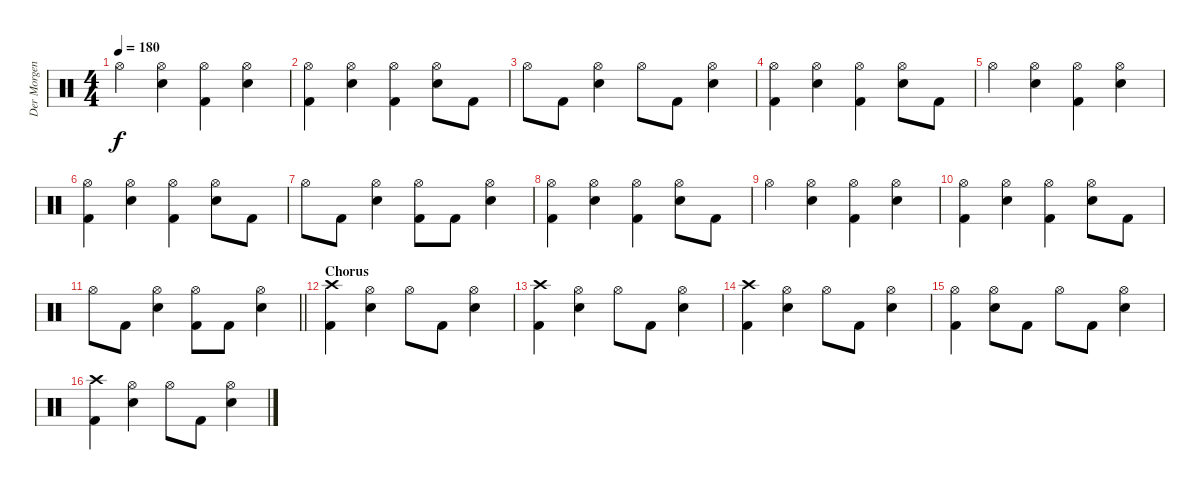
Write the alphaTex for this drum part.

\track ("Der Morgenstern" "Der Morgen") {instrument percussion}
\staff {score}
\articulation defaults
\ts (4 4)
\tempo 180
\clef neutral
\ks c "Hi-Hat (open)".4{dy f}
("Hi-Hat (open)" "Electric Snare (hit)").4 ("Hi-Hat (open)" "Kick (hit) 2").4 ("Hi-Hat (open)" "Electric Snare (hit)").4 |
("Hi-Hat (open)" "Kick (hit) 2").4 ("Hi-Hat (open)" "Electric Snare (hit)").4 ("Hi-Hat (open)" "Kick (hit) 2").4 ("Hi-Hat (open)" "Electric Snare (hit)").8 "Kick (hit) 2".8 |
"Hi-Hat (open)".8 "Kick (hit) 2".8 ("Hi-Hat (open)" "Electric Snare (hit)").4 "Hi-Hat (open)".8 "Kick (hit) 2".8 ("Hi-Hat (open)" "Electric Snare (hit)").4 |
("Hi-Hat (open)" "Kick (hit) 2").4 ("Hi-Hat (open)" "Electric Snare (hit)").4 ("Hi-Hat (open)" "Kick (hit) 2").4 ("Hi-Hat (open)" "Electric Snare (hit)").8 "Kick (hit) 2".8 |
"Hi-Hat (open)".4 ("Hi-Hat (open)" "Electric Snare (hit)").4 ("Hi-Hat (open)" "Kick (hit) 2").4 ("Hi-Hat (open)" "Electric Snare (hit)").4 |
("Hi-Hat (open)" "Kick (hit) 2").4 ("Hi-Hat (open)" "Electric Snare (hit)").4 ("Hi-Hat (open)" "Kick (hit) 2").4 ("Hi-Hat (open)" "Electric Snare (hit)").8 "Kick (hit) 2".8 |
"Hi-Hat (open)".8 "Kick (hit) 2".8 ("Hi-Hat (open)" "Electric Snare (hit)").4 ("Hi-Hat (open)" "Kick (hit) 2").8 "Kick (hit) 2".8 ("Hi-Hat (open)" "Electric Snare (hit)").4 |
("Hi-Hat (open)" "Kick (hit) 2").4 ("Hi-Hat (open)" "Electric Snare (hit)").4 ("Hi-Hat (open)" "Kick (hit) 2").4 ("Hi-Hat (open)" "Electric Snare (hit)").8 "Kick (hit) 2".8 |
"Hi-Hat (open)".4 ("Hi-Hat (open)" "Electric Snare (hit)").4 ("Hi-Hat (open)" "Kick (hit) 2").4 ("Hi-Hat (open)" "Electric Snare (hit)").4 |
("Hi-Hat (open)" "Kick (hit) 2").4 ("Hi-Hat (open)" "Electric Snare (hit)").4 ("Hi-Hat (open)" "Kick (hit) 2").4 ("Hi-Hat (open)" "Electric Snare (hit)").8 "Kick (hit) 2".8 |
\barLineRight lightlight "Hi-Hat (open)".8 "Kick (hit) 2".8
("Hi-Hat (open)" "Electric Snare (hit)").4 ("Hi-Hat (open)" "Kick (hit) 2").8 "Kick (hit) 2".8 ("Hi-Hat (open)" "Electric Snare (hit)").4 |
\section ("" "Chorus")
("Crash high (hit)" "Kick (hit) 2").4 ("Hi-Hat (open)" "Electric Snare (hit)").4 "Hi-Hat (open)".8 "Kick (hit) 2".8 ("Hi-Hat (open)" "Electric Snare (hit)").4 |
("Crash high (hit)" "Kick (hit) 2").4 ("Hi-Hat (open)" "Electric Snare (hit)").4 "Hi-Hat (open)".8 "Kick (hit) 2".8 ("Hi-Hat (open)" "Electric Snare (hit)").4 |
("Crash high (hit)" "Kick (hit) 2").4 ("Hi-Hat (open)" "Electric Snare (hit)").4 "Hi-Hat (open)".8 "Kick (hit) 2".8 ("Hi-Hat (open)" "Electric Snare (hit)").4 |
("Hi-Hat (open)" "Kick (hit) 2").4 ("Hi-Hat (open)" "Electric Snare (hit)").8 "Kick (hit) 2".8 "Hi-Hat (open)".8 "Kick (hit) 2".8 ("Hi-Hat (open)" "Electric Snare (hit)").4 |
("Crash high (hit)" "Kick (hit) 2").4 ("Hi-Hat (open)" "Electric Snare (hit)").4 "Hi-Hat (open)".8 "Kick (hit) 2".8 ("Hi-Hat (open)" "Electric Snare (hit)").4
